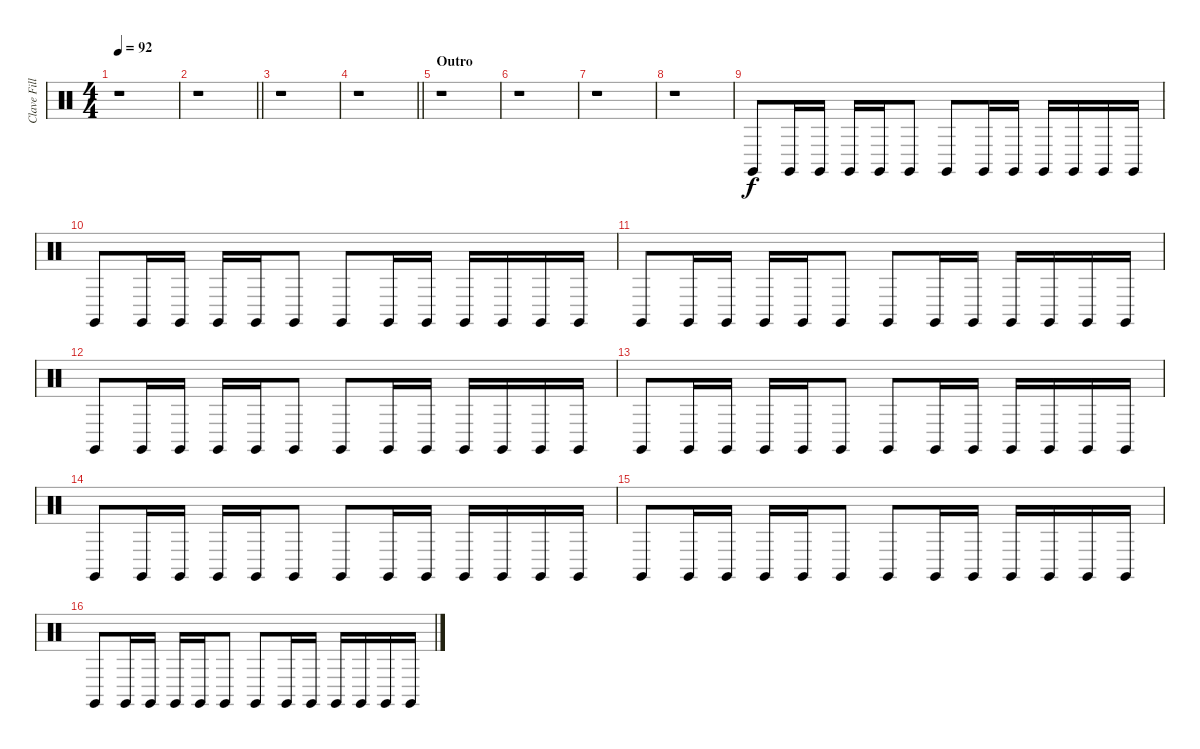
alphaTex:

\track ("Clave Fills" "Clave Fill") {instrument percussion}
\staff {score}
\articulation defaults
\ts (4 4)
\tempo 92
\clef neutral
\ks c
r.1{dy f} |
\barLineRight lightlight
r.1 |
r.1 |
\barLineRight lightlight
r.1 |
\section ("" "Outro")
r.1 |
r.1 |
r.1 |
r.1{volume 4} |
"Claves (hit)".8{volume 6} "Claves (hit)".16 "Claves (hit)".16 "Claves (hit)".16 "Claves (hit)".16 "Claves (hit)".8 "Claves (hit)".8 "Claves (hit)".16 "Claves (hit)".16 "Claves (hit)".16 "Claves (hit)".16 "Claves (hit)".16 "Claves (hit)".16 |
"Claves (hit)".8 "Claves (hit)".16 "Claves (hit)".16 "Claves (hit)".16 "Claves (hit)".16 "Claves (hit)".8 "Claves (hit)".8 "Claves (hit)".16 "Claves (hit)".16 "Claves (hit)".16 "Claves (hit)".16 "Claves (hit)".16 "Claves (hit)".16 |
"Claves (hit)".8 "Claves (hit)".16 "Claves (hit)".16 "Claves (hit)".16 "Claves (hit)".16 "Claves (hit)".8 "Claves (hit)".8 "Claves (hit)".16 "Claves (hit)".16 "Claves (hit)".16 "Claves (hit)".16 "Claves (hit)".16 "Claves (hit)".16 |
"Claves (hit)".8 "Claves (hit)".16 "Claves (hit)".16 "Claves (hit)".16 "Claves (hit)".16 "Claves (hit)".8 "Claves (hit)".8 "Claves (hit)".16 "Claves (hit)".16 "Claves (hit)".16 "Claves (hit)".16 "Claves (hit)".16 "Claves (hit)".16 |
"Claves (hit)".8 "Claves (hit)".16 "Claves (hit)".16 "Claves (hit)".16 "Claves (hit)".16 "Claves (hit)".8 "Claves (hit)".8 "Claves (hit)".16 "Claves (hit)".16 "Claves (hit)".16 "Claves (hit)".16 "Claves (hit)".16 "Claves (hit)".16 |
"Claves (hit)".8 "Claves (hit)".16 "Claves (hit)".16 "Claves (hit)".16 "Claves (hit)".16 "Claves (hit)".8 "Claves (hit)".8 "Claves (hit)".16 "Claves (hit)".16 "Claves (hit)".16 "Claves (hit)".16 "Claves (hit)".16 "Claves (hit)".16 |
"Claves (hit)".8 "Claves (hit)".16 "Claves (hit)".16 "Claves (hit)".16 "Claves (hit)".16 "Claves (hit)".8 "Claves (hit)".8 "Claves (hit)".16 "Claves (hit)".16 "Claves (hit)".16 "Claves (hit)".16 "Claves (hit)".16 "Claves (hit)".16 |
"Claves (hit)".8 "Claves (hit)".16 "Claves (hit)".16 "Claves (hit)".16 "Claves (hit)".16 "Claves (hit)".8 "Claves (hit)".8 "Claves (hit)".16 "Claves (hit)".16 "Claves (hit)".16 "Claves (hit)".16 "Claves (hit)".16 "Claves (hit)".16
